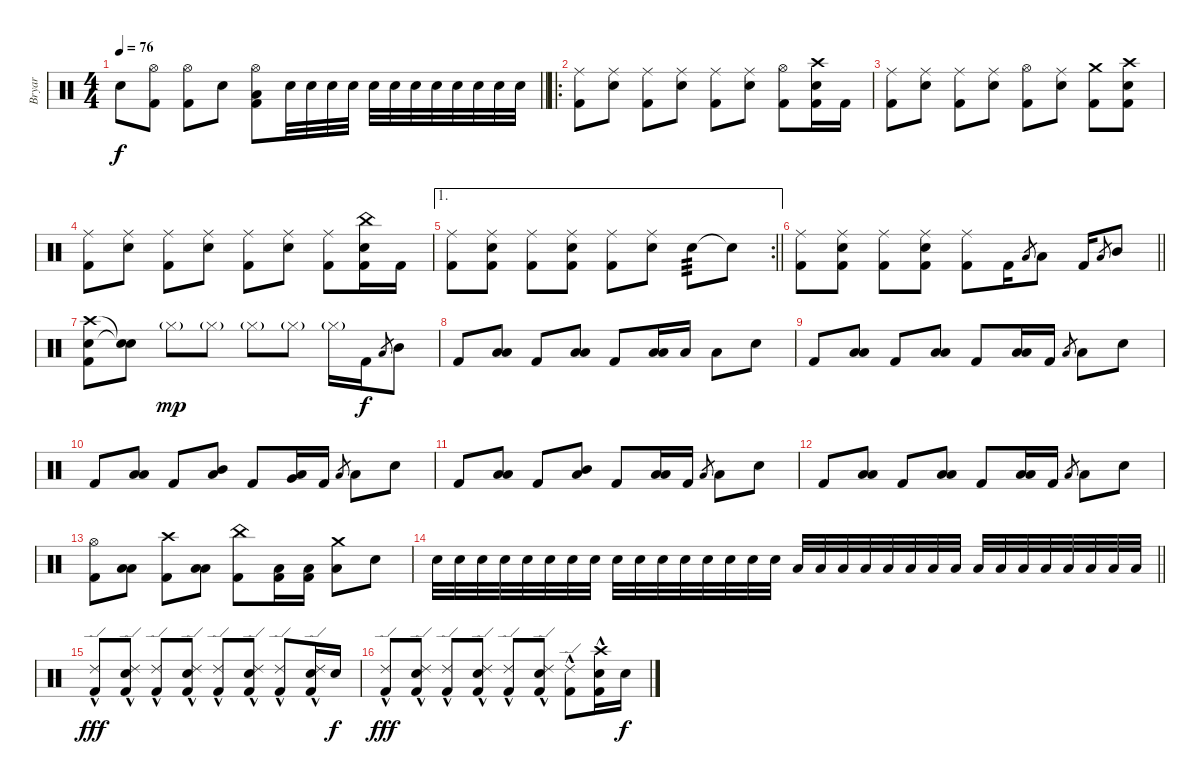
\track ("Bryar" "Bryar") {instrument percussion}
\staff {score}
\articulation defaults
\ts (4 4)
\tempo 76
\clef neutral
\barLineRight lightlight
\ks c "Electric Snare (hit)".8{dy f}
("Hi-Hat (open)" "Kick (hit) 2").8 ("Hi-Hat (open)" "Kick (hit) 2").8 "Electric Snare (hit)".8 ("Hi-Hat (open)" "Low Tom (hit)" "Kick (hit) 2").8 "Electric Snare (hit)".32 "Electric Snare (hit)".32 "Electric Snare (hit)".32 "Electric Snare (hit)".32 "Electric Snare (hit)".32 "Electric Snare (hit)".32 "Electric Snare (hit)".32 "Electric Snare (hit)".32 "Electric Snare (hit)".32 "Electric Snare (hit)".32 "Electric Snare (hit)".32 "Electric Snare (hit)".32 |
\ro
("Ride (middle)" "Kick (hit) 2").8 ("Ride (middle)" "Electric Snare (hit)").8 ("Ride (middle)" "Kick (hit) 2").8 ("Ride (middle)" "Electric Snare (hit)").8 ("Ride (middle)" "Kick (hit) 2").8 ("Ride (middle)" "Electric Snare (hit)").8 ("Hi-Hat (open)" "Kick (hit) 2").8 ("Crash high (hit)" "Electric Snare (hit)" "Kick (hit) 2").16 "Kick (hit) 2".16 |
("Ride (middle)" "Kick (hit) 2").8 ("Ride (middle)" "Electric Snare (hit)").8 ("Ride (middle)" "Kick (hit) 2").8 ("Ride (middle)" "Electric Snare (hit)").8 ("Hi-Hat (open)" "Kick (hit) 2").8 ("Ride (middle)" "Electric Snare (hit)").8 ("Crash medium (hit)" "Kick (hit) 2").8 ("Crash high (hit)" "Electric Snare (hit)" "Kick (hit) 2").8 |
("Ride (middle)" "Kick (hit) 2").8 ("Ride (middle)" "Electric Snare (hit)").8 ("Ride (middle)" "Kick (hit) 2").8 ("Ride (middle)" "Electric Snare (hit)").8 ("Ride (middle)" "Kick (hit) 2").8 ("Ride (middle)" "Electric Snare (hit)").8 ("Ride (middle)" "Kick (hit) 2").8 ("China (hit)" "Electric Snare (hit)" "Kick (hit) 2").16 "Kick (hit) 2".16 |
\ae 1
\rc 2
\barLineRight lightlight
("Ride (middle)" "Kick (hit) 2").8 ("Ride (middle)" "Electric Snare (hit)" "Kick (hit) 2").8 ("Ride (middle)" "Kick (hit) 2").8 ("Ride (middle)" "Electric Snare (hit)" "Kick (hit) 2").8 ("Ride (middle)" "Kick (hit) 2").8 ("Ride (middle)" "Electric Snare (hit)").8 "Electric Snare (hit)".8{tp 3} "Electric Snare (hit)"{t}.8 |
\barLineRight lightlight
("Ride (middle)" "Kick (hit) 2").8 ("Ride (middle)" "Electric Snare (hit)" "Kick (hit) 2").8 ("Ride (middle)" "Kick (hit) 2").8 ("Ride (middle)" "Electric Snare (hit)" "Kick (hit) 2").8 ("Ride (middle)" "Kick (hit) 2").8 "Kick (hit) 2".16 "Low Tom (hit)".8{gr} "Low Tom (hit)".8 "Kick (hit) 2".16 "Low Tom (hit)".8{gr} "Mid Tom (hit)".8 |
("Crash high (hit)" "Electric Snare (hit)" "Kick (hit) 2").8 ("Snare (hit)"{t} "Snare (hit)"{t}).8 "Hi-Hat (closed)"{g}.8{dy mp volume 16} "Hi-Hat (closed)"{g}.8 "Hi-Hat (closed)"{g}.8 "Hi-Hat (closed)"{g}.8 "Hi-Hat (closed)"{g}.16 "Kick (hit) 2".16{dy f} "Low Tom (hit)".8{gr} "Mid Tom (hit)".8 |
"Kick (hit) 2".8 ("Low Tom (hit)" "Low Floor Tom (hit)").8 "Kick (hit) 2".8 ("Low Tom (hit)" "Low Floor Tom (hit)").8 "Kick (hit) 2".8 ("Low Tom (hit)" "Low Floor Tom (hit)").16 "Low Tom (hit)".16 "Low Tom (hit)".8 "Electric Snare (hit)".8 |
"Kick (hit) 2".8 ("Low Tom (hit)" "Low Floor Tom (hit)").8 "Kick (hit) 2".8 ("Low Tom (hit)" "Low Floor Tom (hit)").8 "Kick (hit) 2".8 ("Low Tom (hit)" "Low Floor Tom (hit)").16 "Kick (hit) 2".16 "Low Floor Tom (hit)".8{gr} "Low Tom (hit)".8 "Electric Snare (hit)".8 |
"Kick (hit) 2".8 ("Low Tom (hit)" "Low Floor Tom (hit)").8 "Kick (hit) 2".8 ("Mid Tom (hit)" "Low Floor Tom (hit)").8 "Kick (hit) 2".8 ("Very Low Tom (hit)" "Low Floor Tom (hit)").16 "Kick (hit) 2".16 "Low Floor Tom (hit)".8{gr} "Low Tom (hit)".8 "Electric Snare (hit)".8 |
"Kick (hit) 2".8 ("Low Tom (hit)" "Low Floor Tom (hit)").8 "Kick (hit) 2".8 ("Mid Tom (hit)" "Low Floor Tom (hit)").8 "Kick (hit) 2".8 ("Low Tom (hit)" "Low Floor Tom (hit)").16 "Kick (hit) 2".16 "Low Floor Tom (hit)".8{gr} "Low Tom (hit)".8 "Electric Snare (hit)".8 |
"Kick (hit) 2".8 ("Low Tom (hit)" "Low Floor Tom (hit)").8 "Kick (hit) 2".8 ("Low Tom (hit)" "Low Floor Tom (hit)").8 "Kick (hit) 2".8 ("Low Tom (hit)" "Low Floor Tom (hit)").16 "Kick (hit) 2".16 "Low Floor Tom (hit)".8{gr} "Low Tom (hit)".8 "Electric Snare (hit)".8 |
("Hi-Hat (open)" "Kick (hit) 2").8 ("Low Tom (hit)" "Low Floor Tom (hit)").8 ("Crash high (hit)" "Kick (hit) 2").8 ("Low Tom (hit)" "Low Floor Tom (hit)").8 ("China (hit)" "Kick (hit) 2").8 ("Low Tom (hit)" "Kick (hit) 2").16 ("Low Floor Tom (hit)" "Kick (hit) 2").16 ("Crash medium (hit)" "Low Tom (hit)").8 "Electric Snare (hit)".8 |
\barLineRight lightlight "Electric Snare (hit)".32 "Electric Snare (hit)".32 "Electric Snare (hit)".32 "Electric Snare (hit)".32 "Electric Snare (hit)".32 "Electric Snare (hit)".32 "Electric Snare (hit)".32 "Electric Snare (hit)".32 "Electric Snare (hit)".32 "Electric Snare (hit)".32 "Electric Snare (hit)".32 "Electric Snare (hit)".32 "Electric Snare (hit)".32 "Electric Snare (hit)".32 "Electric Snare (hit)".32 "Electric Snare (hit)".32 "Low Tom (hit)".32 "Low Tom (hit)".32 "Low Tom (hit)".32 "Low Tom (hit)".32 "Low Tom (hit)".32 "Low Tom (hit)".32 "Low Tom (hit)".32 "Low Tom (hit)".32 "Low Floor Tom (hit)".32 "Low Floor Tom (hit)".32 "Low Floor Tom (hit)".32 "Low Floor Tom (hit)".32 "Low Floor Tom (hit)".32 "Low Floor Tom (hit)".32 "Low Floor Tom (hit)".32 "Low Floor Tom (hit)".32
|
("Ride (edge) 2"{hac} "Kick (hit) 2").8{dy fff} ("Ride (edge) 2"{hac} "Electric Snare (hit)" "Kick (hit) 2").8 ("Ride (edge) 2"{hac} "Kick (hit) 2").8 ("Ride (edge) 2"{hac} "Electric Snare (hit)" "Kick (hit) 2").8 ("Ride (edge) 2"{hac} "Kick (hit) 2").8 ("Ride (edge) 2"{hac} "Electric Snare (hit)" "Kick (hit) 2").8 ("Ride (edge) 2"{hac} "Kick (hit) 2").8 ("Ride (edge) 2"{hac} "Electric Snare (hit)" "Kick (hit) 2").16 "Electric Snare (hit)".16{dy f} |
("Ride (edge) 2"{hac} "Kick (hit) 2").8{dy fff} ("Ride (edge) 2"{hac} "Electric Snare (hit)" "Kick (hit) 2").8 ("Ride (edge) 2"{hac} "Kick (hit) 2").8 ("Ride (edge) 2"{hac} "Electric Snare (hit)" "Kick (hit) 2").8 ("Ride (edge) 2"{hac} "Kick (hit) 2").8 ("Ride (edge) 2"{hac} "Electric Snare (hit)" "Kick (hit) 2").8 ("Ride (edge) 2"{hac} "Kick (hit) 2").8 ("Crash high (hit)"{hac} "Electric Snare (hit)" "Kick (hit) 2").16 "Electric Snare (hit)".16{dy f}
